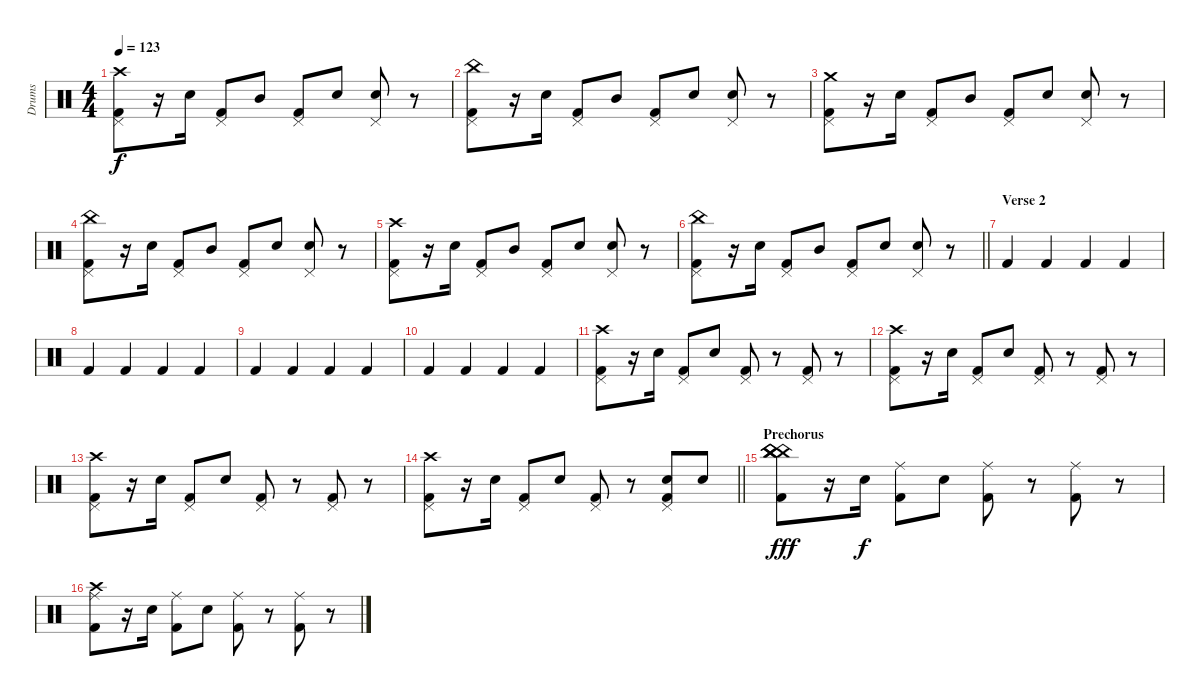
\track ("Drums" "Drums") {instrument percussion}
\staff {score}
\articulation defaults
\ts (4 4)
\tempo 123
\clef neutral
\ks c
("Crash high (hit)" "Pedal Hi-Hat (hit)" "Kick (hit) 2").8{dy f} r.16 "Snare (hit) 2".16 ("Pedal Hi-Hat (hit)" "Kick (hit) 2").8 "Mid Tom (hit)".8 ("Pedal Hi-Hat (hit)" "Kick (hit) 2").8 "Snare (hit) 2".8 ("Pedal Hi-Hat (hit)" "Snare (hit) 2").8 r.8 |
("China (hit)" "Pedal Hi-Hat (hit)" "Kick (hit) 2").8 r.16 "Snare (hit) 2".16 ("Pedal Hi-Hat (hit)" "Kick (hit) 2").8 "Mid Tom (hit)".8 ("Pedal Hi-Hat (hit)" "Kick (hit) 2").8 "Snare (hit) 2".8 ("Pedal Hi-Hat (hit)" "Snare (hit) 2").8 r.8 |
("Crash medium (hit)" "Pedal Hi-Hat (hit)" "Kick (hit) 2").8 r.16 "Snare (hit) 2".16 ("Pedal Hi-Hat (hit)" "Kick (hit) 2").8 "Mid Tom (hit)".8 ("Pedal Hi-Hat (hit)" "Kick (hit) 2").8 "Snare (hit) 2".8 ("Pedal Hi-Hat (hit)" "Snare (hit) 2").8 r.8 |
("China (hit)" "Pedal Hi-Hat (hit)" "Kick (hit) 2").8 r.16 "Snare (hit) 2".16 ("Pedal Hi-Hat (hit)" "Kick (hit) 2").8 "Mid Tom (hit)".8 ("Pedal Hi-Hat (hit)" "Kick (hit) 2").8 "Snare (hit) 2".8 ("Pedal Hi-Hat (hit)" "Snare (hit) 2").8 r.8 |
("Crash high (hit)" "Pedal Hi-Hat (hit)" "Kick (hit) 2").8 r.16 "Snare (hit) 2".16 ("Pedal Hi-Hat (hit)" "Kick (hit) 2").8 "Mid Tom (hit)".8 ("Pedal Hi-Hat (hit)" "Kick (hit) 2").8 "Snare (hit) 2".8 ("Pedal Hi-Hat (hit)" "Snare (hit) 2").8 r.8 |
\barLineRight lightlight
("China (hit)" "Pedal Hi-Hat (hit)" "Kick (hit) 2").8 r.16 "Snare (hit) 2".16 ("Pedal Hi-Hat (hit)" "Kick (hit) 2").8 "Mid Tom (hit)".8 ("Pedal Hi-Hat (hit)" "Kick (hit) 2").8 "Snare (hit) 2".8 ("Pedal Hi-Hat (hit)" "Snare (hit) 2").8 r.8 |
\section ("" "Verse 2")
"Kick (hit) 2".4 "Kick (hit) 2".4 "Kick (hit) 2".4 "Kick (hit) 2".4 |
"Kick (hit) 2".4 "Kick (hit) 2".4 "Kick (hit) 2".4 "Kick (hit) 2".4 |
"Kick (hit) 2".4 "Kick (hit) 2".4 "Kick (hit) 2".4 "Kick (hit) 2".4 |
"Kick (hit) 2".4 "Kick (hit) 2".4 "Kick (hit) 2".4 "Kick (hit) 2".4 |
("Crash high (hit)" "Pedal Hi-Hat (hit)" "Kick (hit) 2").8 r.16 "Snare (hit) 2".16 ("Pedal Hi-Hat (hit)" "Kick (hit) 2").8 "Snare (hit) 2".8 ("Pedal Hi-Hat (hit)" "Kick (hit) 2").8 r.8 ("Pedal Hi-Hat (hit)" "Kick (hit) 2").8 r.8 |
("Crash high (hit)" "Pedal Hi-Hat (hit)" "Kick (hit) 2").8 r.16 "Snare (hit) 2".16 ("Pedal Hi-Hat (hit)" "Kick (hit) 2").8 "Snare (hit) 2".8 ("Pedal Hi-Hat (hit)" "Kick (hit) 2").8 r.8 ("Pedal Hi-Hat (hit)" "Kick (hit) 2").8 r.8 |
("Crash high (hit)" "Pedal Hi-Hat (hit)" "Kick (hit) 2").8 r.16 "Snare (hit) 2".16 ("Pedal Hi-Hat (hit)" "Kick (hit) 2").8 "Snare (hit) 2".8 ("Pedal Hi-Hat (hit)" "Kick (hit) 2").8 r.8 ("Pedal Hi-Hat (hit)" "Kick (hit) 2").8 r.8 |
\barLineRight lightlight
("Crash high (hit)" "Pedal Hi-Hat (hit)" "Kick (hit) 2").8 r.16 "Snare (hit) 2".16 ("Pedal Hi-Hat (hit)" "Kick (hit) 2").8 "Snare (hit) 2".8 ("Pedal Hi-Hat (hit)" "Kick (hit) 2").8 r.8 ("Pedal Hi-Hat (hit)" "Snare (hit) 2" "Kick (hit) 2").8 "Snare (hit) 2".8 |
\section ("" "Prechorus")
("China (hit)" "China (hit)" "China (hit)" "China (hit)" "Kick (hit) 2").8{dy fff} r.16 "Snare (hit) 2".16{dy f} ("Ride (middle)" "Kick (hit) 2").8 "Snare (hit) 2".8 ("Ride (middle)" "Kick (hit) 2").8 r.8 ("Ride (middle)" "Kick (hit) 2").8 r.8 |
("Crash high (hit)" "Ride (middle)" "Kick (hit) 2").8 r.16 "Snare (hit) 2".16 ("Ride (middle)" "Kick (hit) 2").8 "Snare (hit) 2".8 ("Ride (middle)" "Kick (hit) 2").8 r.8 ("Ride (middle)" "Kick (hit) 2").8 r.8
